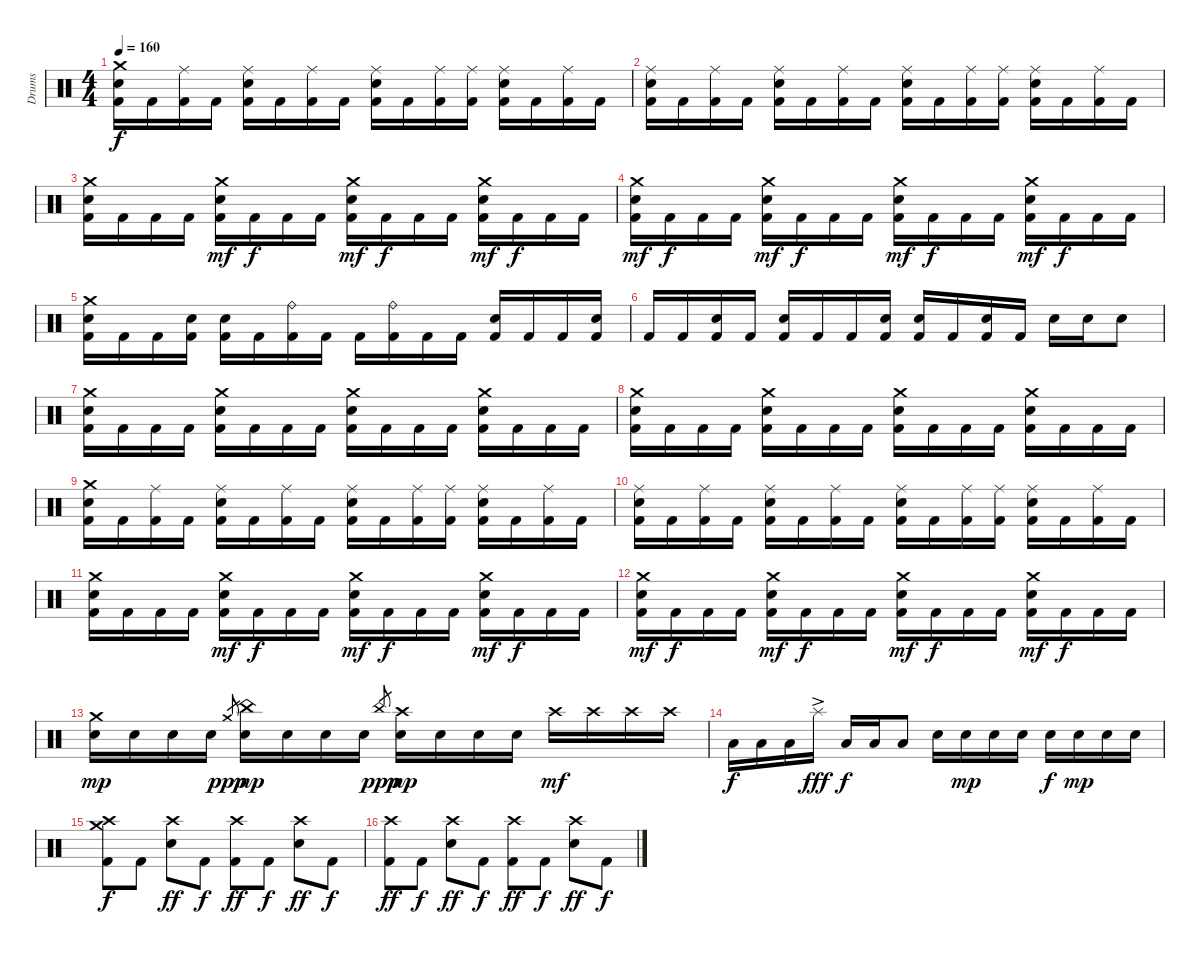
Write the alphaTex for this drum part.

\track ("Drums" "Drums") {instrument percussion}
\staff {score}
\articulation defaults
\ts (4 4)
\tempo 160
\clef neutral
\ks c
("Crash medium (hit)" "Snare (hit) 2" "Kick (hit) 2").16{dy f} "Kick (hit) 2".16 ("Ride (middle)" "Kick (hit) 2").16 "Kick (hit) 2".16 ("Ride (middle)" "Snare (hit) 2" "Kick (hit) 2").16 "Kick (hit) 2".16 ("Ride (middle)" "Kick (hit) 2").16 "Kick (hit) 2".16 ("Ride (middle)" "Snare (hit) 2" "Kick (hit) 2").16 "Kick (hit) 2".16 ("Ride (middle)" "Kick (hit) 2").16 ("Ride (middle)" "Kick (hit) 2").16 ("Ride (middle)" "Snare (hit) 2" "Kick (hit) 2").16 "Kick (hit) 2".16 ("Ride (middle)" "Kick (hit) 2").16 "Kick (hit) 2".16 |
("Ride (middle)" "Snare (hit) 2" "Kick (hit) 2").16 "Kick (hit) 2".16 ("Ride (middle)" "Kick (hit) 2").16 "Kick (hit) 2".16 ("Ride (middle)" "Snare (hit) 2" "Kick (hit) 2").16 "Kick (hit) 2".16 ("Ride (middle)" "Kick (hit) 2").16 "Kick (hit) 2".16 ("Ride (middle)" "Snare (hit) 2" "Kick (hit) 2").16 "Kick (hit) 2".16 ("Ride (middle)" "Kick (hit) 2").16 ("Ride (middle)" "Kick (hit) 2").16 ("Ride (middle)" "Snare (hit) 2" "Kick (hit) 2").16 "Kick (hit) 2".16 ("Ride (middle)" "Kick (hit) 2").16 "Kick (hit) 2".16 |
("Crash medium (hit)" "Snare (hit) 2" "Kick (hit) 2").16 "Kick (hit) 2".16 "Kick (hit) 2".16 "Kick (hit) 2".16 ("Crash medium (hit)" "Snare (hit) 2" "Kick (hit) 2").16{dy mf} "Kick (hit) 2".16{dy f} "Kick (hit) 2".16 "Kick (hit) 2".16 ("Crash medium (hit)" "Snare (hit) 2" "Kick (hit) 2").16{dy mf} "Kick (hit) 2".16{dy f} "Kick (hit) 2".16 "Kick (hit) 2".16 ("Crash medium (hit)" "Snare (hit) 2" "Kick (hit) 2").16{dy mf} "Kick (hit) 2".16{dy f} "Kick (hit) 2".16 "Kick (hit) 2".16 |
("Crash medium (hit)" "Snare (hit) 2" "Kick (hit) 2").16{dy mf} "Kick (hit) 2".16{dy f} "Kick (hit) 2".16 "Kick (hit) 2".16 ("Crash medium (hit)" "Snare (hit) 2" "Kick (hit) 2").16{dy mf} "Kick (hit) 2".16{dy f} "Kick (hit) 2".16 "Kick (hit) 2".16 ("Crash medium (hit)" "Snare (hit) 2" "Kick (hit) 2").16{dy mf} "Kick (hit) 2".16{dy f} "Kick (hit) 2".16 "Kick (hit) 2".16 ("Crash medium (hit)" "Snare (hit) 2" "Kick (hit) 2").16{dy mf} "Kick (hit) 2".16{dy f} "Kick (hit) 2".16 "Kick (hit) 2".16 |
("Crash medium (hit)" "Snare (hit) 2" "Kick (hit) 2").16 "Kick (hit) 2".16 "Kick (hit) 2".16 ("Snare (hit) 2" "Kick (hit) 2").16 ("Snare (hit) 2" "Kick (hit) 2").16 "Kick (hit) 2".16 ("Ride (bell)" "Kick (hit) 2").16 "Kick (hit) 2".16 "Kick (hit) 2".16 ("Ride (bell)" "Kick (hit) 2").16 "Kick (hit) 2".16 "Kick (hit) 2".16 ("Snare (hit) 2" "Kick (hit) 2").16 "Kick (hit) 2".16 "Kick (hit) 2".16 ("Snare (hit) 2" "Kick (hit) 2").16 |
"Kick (hit) 2".16 "Kick (hit) 2".16 ("Snare (hit) 2" "Kick (hit) 2").16 "Kick (hit) 2".16 ("Snare (hit) 2" "Kick (hit) 2").16 "Kick (hit) 2".16 "Kick (hit) 2".16 ("Snare (hit) 2" "Kick (hit) 2").16 ("Snare (hit) 2" "Kick (hit) 2").16 "Kick (hit) 2".16 ("Snare (hit) 2" "Kick (hit) 2").16 "Kick (hit) 2".16 "Snare (hit) 2".16 "Snare (hit) 2".16 "Snare (hit) 2".8 |
("Crash medium (hit)" "Snare (hit) 2" "Kick (hit) 2").16 "Kick (hit) 2".16 "Kick (hit) 2".16 "Kick (hit) 2".16 ("Crash medium (hit)" "Snare (hit) 2" "Kick (hit) 2").16 "Kick (hit) 2".16 "Kick (hit) 2".16 "Kick (hit) 2".16 ("Crash medium (hit)" "Snare (hit) 2" "Kick (hit) 2").16 "Kick (hit) 2".16 "Kick (hit) 2".16 "Kick (hit) 2".16 ("Crash medium (hit)" "Snare (hit) 2" "Kick (hit) 2").16 "Kick (hit) 2".16 "Kick (hit) 2".16 "Kick (hit) 2".16 |
("Crash medium (hit)" "Snare (hit) 2" "Kick (hit) 2").16 "Kick (hit) 2".16 "Kick (hit) 2".16 "Kick (hit) 2".16 ("Crash medium (hit)" "Snare (hit) 2" "Kick (hit) 2").16 "Kick (hit) 2".16 "Kick (hit) 2".16 "Kick (hit) 2".16 ("Crash medium (hit)" "Snare (hit) 2" "Kick (hit) 2").16 "Kick (hit) 2".16 "Kick (hit) 2".16 "Kick (hit) 2".16 ("Crash medium (hit)" "Snare (hit) 2" "Kick (hit) 2").16 "Kick (hit) 2".16 "Kick (hit) 2".16 "Kick (hit) 2".16 |
("Crash medium (hit)" "Snare (hit) 2" "Kick (hit) 2").16 "Kick (hit) 2".16 ("Ride (middle)" "Kick (hit) 2").16 "Kick (hit) 2".16 ("Ride (middle)" "Snare (hit) 2" "Kick (hit) 2").16 "Kick (hit) 2".16 ("Ride (middle)" "Kick (hit) 2").16 "Kick (hit) 2".16 ("Ride (middle)" "Snare (hit) 2" "Kick (hit) 2").16 "Kick (hit) 2".16 ("Ride (middle)" "Kick (hit) 2").16 ("Ride (middle)" "Kick (hit) 2").16 ("Ride (middle)" "Snare (hit) 2" "Kick (hit) 2").16 "Kick (hit) 2".16 ("Ride (middle)" "Kick (hit) 2").16 "Kick (hit) 2".16 |
("Ride (middle)" "Snare (hit) 2" "Kick (hit) 2").16 "Kick (hit) 2".16 ("Ride (middle)" "Kick (hit) 2").16 "Kick (hit) 2".16 ("Ride (middle)" "Snare (hit) 2" "Kick (hit) 2").16 "Kick (hit) 2".16 ("Ride (middle)" "Kick (hit) 2").16 "Kick (hit) 2".16 ("Ride (middle)" "Snare (hit) 2" "Kick (hit) 2").16 "Kick (hit) 2".16 ("Ride (middle)" "Kick (hit) 2").16 ("Ride (middle)" "Kick (hit) 2").16 ("Ride (middle)" "Snare (hit) 2" "Kick (hit) 2").16 "Kick (hit) 2".16 ("Ride (middle)" "Kick (hit) 2").16 "Kick (hit) 2".16 |
("Crash medium (hit)" "Snare (hit) 2" "Kick (hit) 2").16 "Kick (hit) 2".16 "Kick (hit) 2".16 "Kick (hit) 2".16 ("Crash medium (hit)" "Snare (hit) 2" "Kick (hit) 2").16{dy mf} "Kick (hit) 2".16{dy f} "Kick (hit) 2".16 "Kick (hit) 2".16 ("Crash medium (hit)" "Snare (hit) 2" "Kick (hit) 2").16{dy mf} "Kick (hit) 2".16{dy f} "Kick (hit) 2".16 "Kick (hit) 2".16 ("Crash medium (hit)" "Snare (hit) 2" "Kick (hit) 2").16{dy mf} "Kick (hit) 2".16{dy f} "Kick (hit) 2".16 "Kick (hit) 2".16 |
("Crash medium (hit)" "Snare (hit) 2" "Kick (hit) 2").16{dy mf} "Kick (hit) 2".16{dy f} "Kick (hit) 2".16 "Kick (hit) 2".16 ("Crash medium (hit)" "Snare (hit) 2" "Kick (hit) 2").16{dy mf} "Kick (hit) 2".16{dy f} "Kick (hit) 2".16 "Kick (hit) 2".16 ("Crash medium (hit)" "Snare (hit) 2" "Kick (hit) 2").16{dy mf} "Kick (hit) 2".16{dy f} "Kick (hit) 2".16 "Kick (hit) 2".16 ("Crash medium (hit)" "Snare (hit) 2" "Kick (hit) 2").16{dy mf} "Kick (hit) 2".16{dy f} "Kick (hit) 2".16 "Kick (hit) 2".16 |
("Crash medium (hit)" "Snare (hit) 2").16{dy mp} "Snare (hit) 2".16 "Snare (hit) 2".16 "Snare (hit) 2".16 "Crash medium (hit)".8{gr dy ppp} ("China (hit)" "Snare (hit) 2").16{dy mp} "Snare (hit) 2".16 "Snare (hit) 2".16 "Snare (hit) 2".16 "China (hit)".8{gr dy ppp} ("Crash high (hit)" "Snare (hit) 2").16{dy mp} "Snare (hit) 2".16 "Snare (hit) 2".16 "Snare (hit) 2".16 "Crash high (hit)".16{dy mf} "Crash high (hit)".16 "Crash high (hit)".16 "Crash high (hit)".16 |
"Low Tom (hit)".16{dy f} "Low Tom (hit)".16 "Low Tom (hit)".16 "Splash (hit)"{ac}.16{dy fff} "Low Tom (hit)".16{dy f} "Low Tom (hit)".16 "Low Tom (hit)".8 "Snare (hit) 2".16 "Snare (hit) 2".16{dy mp} "Snare (hit) 2".16 "Snare (hit) 2".16 "Snare (hit) 2".16{dy f} "Snare (hit) 2".16{dy mp} "Snare (hit) 2".16 "Snare (hit) 2".16 |
("Crash high (hit)" "Crash medium (hit)" "Kick (hit) 2").8{dy f} "Kick (hit) 2".8 ("Crash high (hit)" "Snare (hit) 2").8{dy ff} "Kick (hit) 2".8{dy f} ("Crash high (hit)" "Kick (hit) 2").8{dy ff} "Kick (hit) 2".8{dy f} ("Crash high (hit)" "Snare (hit) 2").8{dy ff} "Kick (hit) 2".8{dy f} |
("Crash high (hit)" "Kick (hit) 2").8{dy ff} "Kick (hit) 2".8{dy f} ("Crash high (hit)" "Snare (hit) 2").8{dy ff} "Kick (hit) 2".8{dy f} ("Crash high (hit)" "Kick (hit) 2").8{dy ff} "Kick (hit) 2".8{dy f} ("Crash high (hit)" "Snare (hit) 2").8{dy ff} "Kick (hit) 2".8{dy f}
